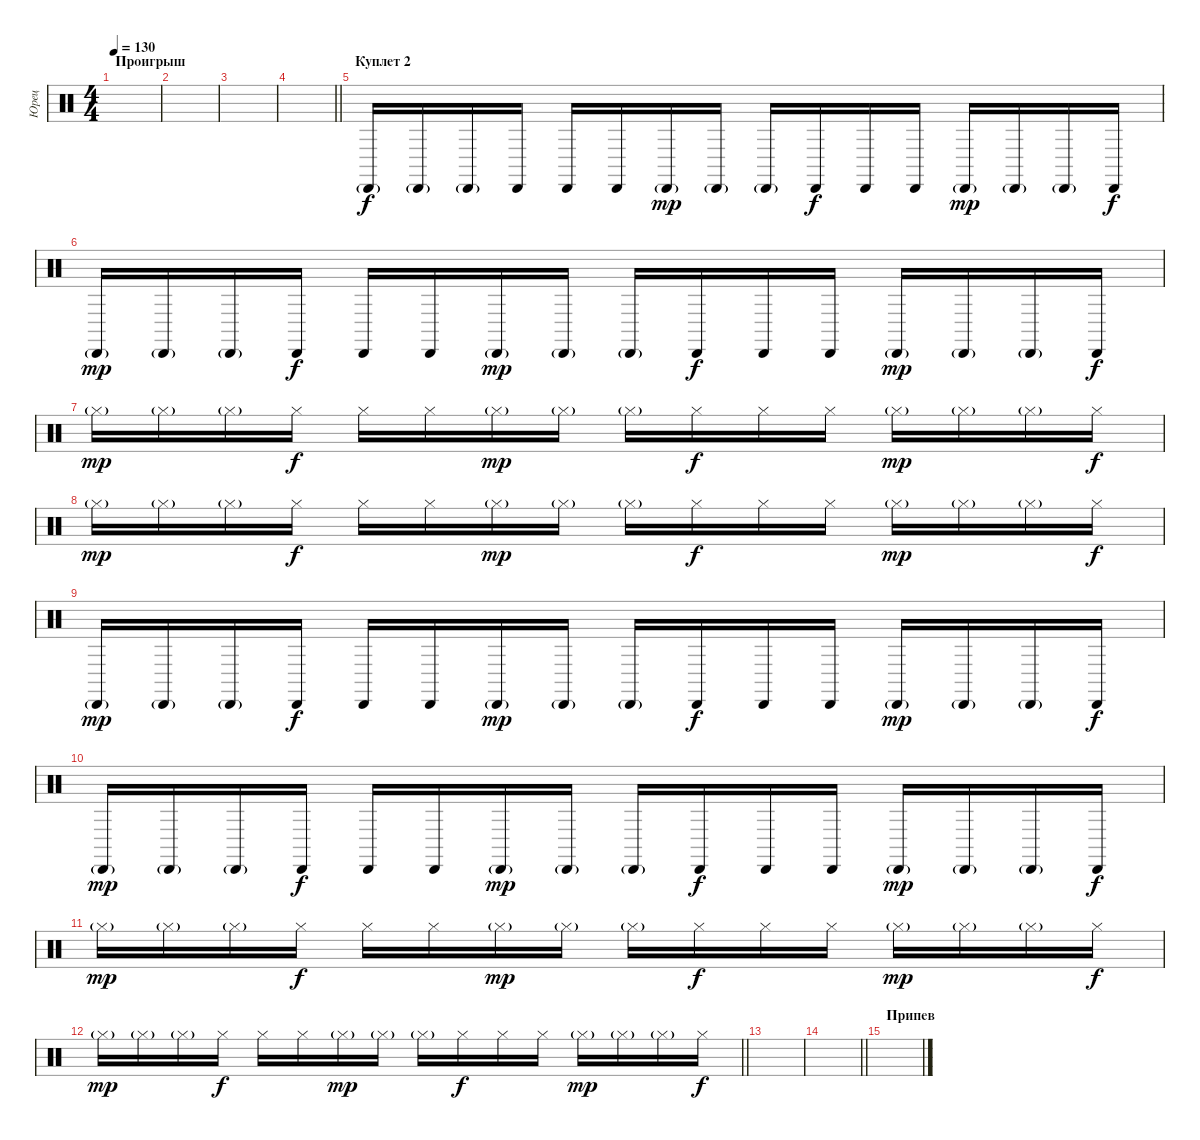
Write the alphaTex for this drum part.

\track ("Юрец" "Юрец") {instrument percussion}
\staff {score}
\articulation defaults
\ts (4 4)
\section ("" "Проигрыш")
\tempo 130
\clef neutral
\ks c
|
|
|
\barLineRight lightlight
|
\section ("" "Куплет 2")
"Cabasa (hit)"{g}.16 "Cabasa (hit)"{g}.16 "Cabasa (hit)"{g}.16 "Cabasa (hit)".16{dy f} "Cabasa (hit)".16 "Cabasa (hit)".16 "Cabasa (hit)"{g}.16{dy mp} "Cabasa (hit)"{g}.16 "Cabasa (hit)"{g}.16 "Cabasa (hit)".16{dy f} "Cabasa (hit)".16 "Cabasa (hit)".16 "Cabasa (hit)"{g}.16{dy mp} "Cabasa (hit)"{g}.16 "Cabasa (hit)"{g}.16 "Cabasa (hit)".16{dy f} |
"Cabasa (hit)"{g}.16{dy mp} "Cabasa (hit)"{g}.16 "Cabasa (hit)"{g}.16 "Cabasa (hit)".16{dy f} "Cabasa (hit)".16 "Cabasa (hit)".16 "Cabasa (hit)"{g}.16{dy mp} "Cabasa (hit)"{g}.16 "Cabasa (hit)"{g}.16 "Cabasa (hit)".16{dy f} "Cabasa (hit)".16 "Cabasa (hit)".16 "Cabasa (hit)"{g}.16{dy mp} "Cabasa (hit)"{g}.16 "Cabasa (hit)"{g}.16 "Cabasa (hit)".16{dy f} |
"Hi-Hat (closed)"{g}.16{dy mp} "Hi-Hat (closed)"{g}.16 "Hi-Hat (closed)"{g}.16 "Hi-Hat (closed)".16{dy f} "Hi-Hat (closed)".16 "Hi-Hat (closed)".16 "Hi-Hat (closed)"{g}.16{dy mp} "Hi-Hat (closed)"{g}.16 "Hi-Hat (closed)"{g}.16 "Hi-Hat (closed)".16{dy f} "Hi-Hat (closed)".16 "Hi-Hat (closed)".16 "Hi-Hat (closed)"{g}.16{dy mp} "Hi-Hat (closed)"{g}.16 "Hi-Hat (closed)"{g}.16 "Hi-Hat (closed)".16{dy f} |
"Hi-Hat (closed)"{g}.16{dy mp} "Hi-Hat (closed)"{g}.16 "Hi-Hat (closed)"{g}.16 "Hi-Hat (closed)".16{dy f} "Hi-Hat (closed)".16 "Hi-Hat (closed)".16 "Hi-Hat (closed)"{g}.16{dy mp} "Hi-Hat (closed)"{g}.16 "Hi-Hat (closed)"{g}.16 "Hi-Hat (closed)".16{dy f} "Hi-Hat (closed)".16 "Hi-Hat (closed)".16 "Hi-Hat (closed)"{g}.16{dy mp} "Hi-Hat (closed)"{g}.16 "Hi-Hat (closed)"{g}.16 "Hi-Hat (closed)".16{dy f} |
"Cabasa (hit)"{g}.16{dy mp} "Cabasa (hit)"{g}.16 "Cabasa (hit)"{g}.16 "Cabasa (hit)".16{dy f} "Cabasa (hit)".16 "Cabasa (hit)".16 "Cabasa (hit)"{g}.16{dy mp} "Cabasa (hit)"{g}.16 "Cabasa (hit)"{g}.16 "Cabasa (hit)".16{dy f} "Cabasa (hit)".16 "Cabasa (hit)".16 "Cabasa (hit)"{g}.16{dy mp} "Cabasa (hit)"{g}.16 "Cabasa (hit)"{g}.16 "Cabasa (hit)".16{dy f} |
"Cabasa (hit)"{g}.16{dy mp} "Cabasa (hit)"{g}.16 "Cabasa (hit)"{g}.16 "Cabasa (hit)".16{dy f} "Cabasa (hit)".16 "Cabasa (hit)".16 "Cabasa (hit)"{g}.16{dy mp} "Cabasa (hit)"{g}.16 "Cabasa (hit)"{g}.16 "Cabasa (hit)".16{dy f} "Cabasa (hit)".16 "Cabasa (hit)".16 "Cabasa (hit)"{g}.16{dy mp} "Cabasa (hit)"{g}.16 "Cabasa (hit)"{g}.16 "Cabasa (hit)".16{dy f} |
"Hi-Hat (closed)"{g}.16{dy mp} "Hi-Hat (closed)"{g}.16 "Hi-Hat (closed)"{g}.16 "Hi-Hat (closed)".16{dy f} "Hi-Hat (closed)".16 "Hi-Hat (closed)".16 "Hi-Hat (closed)"{g}.16{dy mp} "Hi-Hat (closed)"{g}.16 "Hi-Hat (closed)"{g}.16 "Hi-Hat (closed)".16{dy f} "Hi-Hat (closed)".16 "Hi-Hat (closed)".16 "Hi-Hat (closed)"{g}.16{dy mp} "Hi-Hat (closed)"{g}.16 "Hi-Hat (closed)"{g}.16 "Hi-Hat (closed)".16{dy f} |
\barLineRight lightlight "Hi-Hat (closed)"{g}.16{dy mp} "Hi-Hat (closed)"{g}.16 "Hi-Hat (closed)"{g}.16 "Hi-Hat (closed)".16{dy f} "Hi-Hat (closed)".16 "Hi-Hat (closed)".16 "Hi-Hat (closed)"{g}.16{dy mp} "Hi-Hat (closed)"{g}.16 "Hi-Hat (closed)"{g}.16 "Hi-Hat (closed)".16{dy f} "Hi-Hat (closed)".16 "Hi-Hat (closed)".16 "Hi-Hat (closed)"{g}.16{dy mp} "Hi-Hat (closed)"{g}.16 "Hi-Hat (closed)"{g}.16 "Hi-Hat (closed)".16{dy f}
|
|
\barLineRight lightlight
|
\section ("" "Припев")
